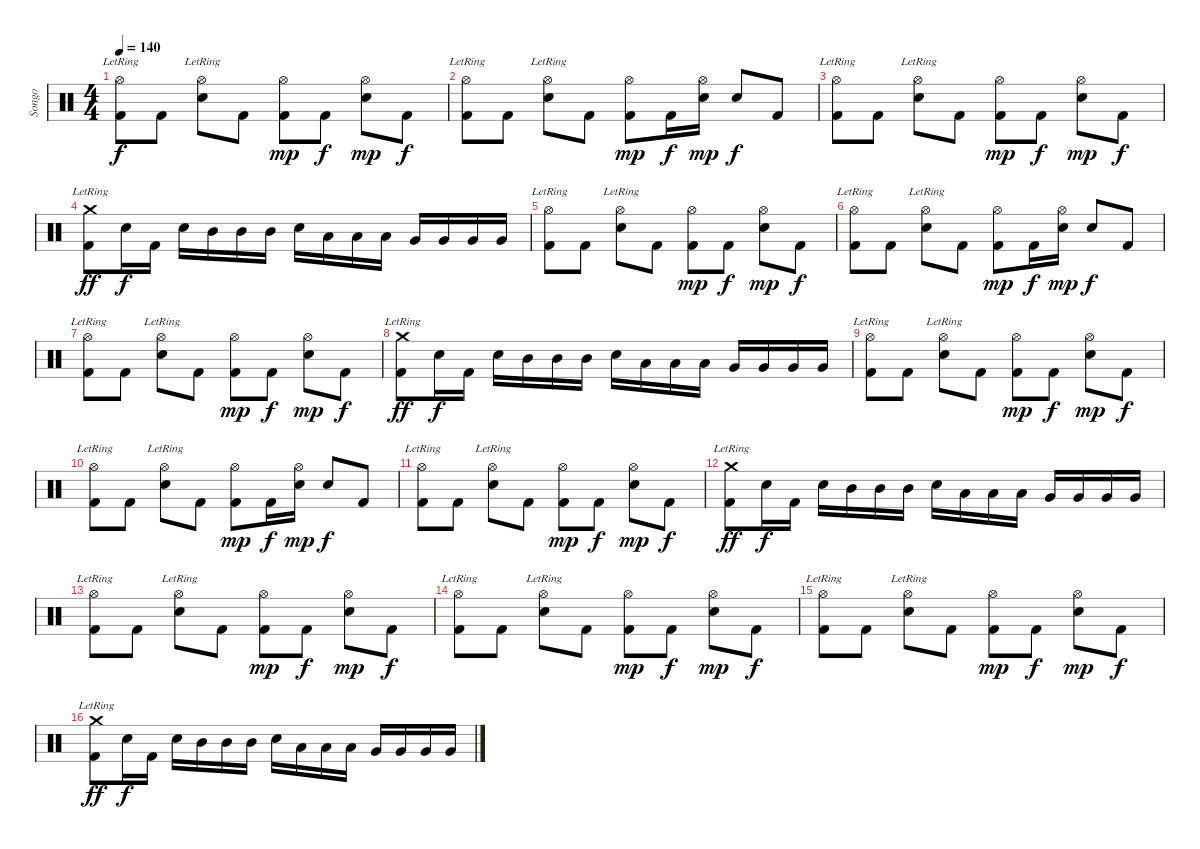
\track ("Songo" "Songo") {instrument percussion}
\staff {score}
\articulation defaults
\ts (4 4)
\tempo 140
\clef neutral
\ks c
("Hi-Hat (open)"{lr} "Kick (hit) 2").8{dy f} "Kick (hit) 2".8 ("Hi-Hat (open)"{lr} "Electric Snare (hit)").8 "Kick (hit) 2".8 ("Hi-Hat (open)" "Kick (hit) 2").8{dy mp} "Kick (hit) 2".8{dy f} ("Hi-Hat (open)" "Electric Snare (hit)").8{dy mp} "Kick (hit) 2".8{dy f} |
("Hi-Hat (open)"{lr} "Kick (hit) 2").8 "Kick (hit) 2".8 ("Hi-Hat (open)"{lr} "Electric Snare (hit)").8 "Kick (hit) 2".8 ("Hi-Hat (open)" "Kick (hit) 2").8{dy mp} "Kick (hit) 2".16{dy f} ("Hi-Hat (open)" "Electric Snare (hit)").16{dy mp} "Electric Snare (hit)".8{dy f} "Kick (hit) 2".8 |
("Hi-Hat (open)"{lr} "Kick (hit) 2").8 "Kick (hit) 2".8 ("Hi-Hat (open)"{lr} "Electric Snare (hit)").8 "Kick (hit) 2".8 ("Hi-Hat (open)" "Kick (hit) 2").8{dy mp} "Kick (hit) 2".8{dy f} ("Hi-Hat (open)" "Electric Snare (hit)").8{dy mp} "Kick (hit) 2".8{dy f} |
("Crash medium (hit)"{lr} "Kick (hit) 2").8{dy ff} "Electric Snare (hit)".16{dy f} "Kick (hit) 2".16 "Electric Snare (hit)".16 "Mid Tom (hit)".16 "Mid Tom (hit)".16 "Mid Tom (hit)".16 "Electric Snare (hit)".16 "Low Tom (hit)".16 "Low Tom (hit)".16 "Low Tom (hit)".16 "Very Low Tom (hit)".16 "Very Low Tom (hit)".16 "Very Low Tom (hit)".16 "Very Low Tom (hit)".16 |
("Hi-Hat (open)"{lr} "Kick (hit) 2").8 "Kick (hit) 2".8 ("Hi-Hat (open)"{lr} "Electric Snare (hit)").8 "Kick (hit) 2".8 ("Hi-Hat (open)" "Kick (hit) 2").8{dy mp} "Kick (hit) 2".8{dy f} ("Hi-Hat (open)" "Electric Snare (hit)").8{dy mp} "Kick (hit) 2".8{dy f} |
("Hi-Hat (open)"{lr} "Kick (hit) 2").8 "Kick (hit) 2".8 ("Hi-Hat (open)"{lr} "Electric Snare (hit)").8 "Kick (hit) 2".8 ("Hi-Hat (open)" "Kick (hit) 2").8{dy mp} "Kick (hit) 2".16{dy f} ("Hi-Hat (open)" "Electric Snare (hit)").16{dy mp} "Electric Snare (hit)".8{dy f} "Kick (hit) 2".8 |
("Hi-Hat (open)"{lr} "Kick (hit) 2").8 "Kick (hit) 2".8 ("Hi-Hat (open)"{lr} "Electric Snare (hit)").8 "Kick (hit) 2".8 ("Hi-Hat (open)" "Kick (hit) 2").8{dy mp} "Kick (hit) 2".8{dy f} ("Hi-Hat (open)" "Electric Snare (hit)").8{dy mp} "Kick (hit) 2".8{dy f} |
("Crash medium (hit)"{lr} "Kick (hit) 2").8{dy ff} "Electric Snare (hit)".16{dy f} "Kick (hit) 2".16 "Electric Snare (hit)".16 "Mid Tom (hit)".16 "Mid Tom (hit)".16 "Mid Tom (hit)".16 "Electric Snare (hit)".16 "Low Tom (hit)".16 "Low Tom (hit)".16 "Low Tom (hit)".16 "Very Low Tom (hit)".16 "Very Low Tom (hit)".16 "Very Low Tom (hit)".16 "Very Low Tom (hit)".16 |
("Hi-Hat (open)"{lr} "Kick (hit) 2").8 "Kick (hit) 2".8 ("Hi-Hat (open)"{lr} "Electric Snare (hit)").8 "Kick (hit) 2".8 ("Hi-Hat (open)" "Kick (hit) 2").8{dy mp} "Kick (hit) 2".8{dy f} ("Hi-Hat (open)" "Electric Snare (hit)").8{dy mp} "Kick (hit) 2".8{dy f} |
("Hi-Hat (open)"{lr} "Kick (hit) 2").8 "Kick (hit) 2".8 ("Hi-Hat (open)"{lr} "Electric Snare (hit)").8 "Kick (hit) 2".8 ("Hi-Hat (open)" "Kick (hit) 2").8{dy mp} "Kick (hit) 2".16{dy f} ("Hi-Hat (open)" "Electric Snare (hit)").16{dy mp} "Electric Snare (hit)".8{dy f} "Kick (hit) 2".8 |
("Hi-Hat (open)"{lr} "Kick (hit) 2").8 "Kick (hit) 2".8 ("Hi-Hat (open)"{lr} "Electric Snare (hit)").8 "Kick (hit) 2".8 ("Hi-Hat (open)" "Kick (hit) 2").8{dy mp} "Kick (hit) 2".8{dy f} ("Hi-Hat (open)" "Electric Snare (hit)").8{dy mp} "Kick (hit) 2".8{dy f} |
("Crash medium (hit)"{lr} "Kick (hit) 2").8{dy ff} "Electric Snare (hit)".16{dy f} "Kick (hit) 2".16 "Electric Snare (hit)".16 "Mid Tom (hit)".16 "Mid Tom (hit)".16 "Mid Tom (hit)".16 "Electric Snare (hit)".16 "Low Tom (hit)".16 "Low Tom (hit)".16 "Low Tom (hit)".16 "Very Low Tom (hit)".16 "Very Low Tom (hit)".16 "Very Low Tom (hit)".16 "Very Low Tom (hit)".16 |
("Hi-Hat (open)"{lr} "Kick (hit) 2").8 "Kick (hit) 2".8 ("Hi-Hat (open)"{lr} "Electric Snare (hit)").8 "Kick (hit) 2".8 ("Hi-Hat (open)" "Kick (hit) 2").8{dy mp} "Kick (hit) 2".8{dy f} ("Hi-Hat (open)" "Electric Snare (hit)").8{dy mp} "Kick (hit) 2".8{dy f} |
("Hi-Hat (open)"{lr} "Kick (hit) 2").8 "Kick (hit) 2".8 ("Hi-Hat (open)"{lr} "Electric Snare (hit)").8 "Kick (hit) 2".8 ("Hi-Hat (open)" "Kick (hit) 2").8{dy mp} "Kick (hit) 2".8{dy f} ("Hi-Hat (open)" "Electric Snare (hit)").8{dy mp} "Kick (hit) 2".8{dy f} |
("Hi-Hat (open)"{lr} "Kick (hit) 2").8 "Kick (hit) 2".8 ("Hi-Hat (open)"{lr} "Electric Snare (hit)").8 "Kick (hit) 2".8 ("Hi-Hat (open)" "Kick (hit) 2").8{dy mp} "Kick (hit) 2".8{dy f} ("Hi-Hat (open)" "Electric Snare (hit)").8{dy mp} "Kick (hit) 2".8{dy f} |
("Crash medium (hit)"{lr} "Kick (hit) 2").8{dy ff} "Electric Snare (hit)".16{dy f} "Kick (hit) 2".16 "Electric Snare (hit)".16 "Mid Tom (hit)".16 "Mid Tom (hit)".16 "Mid Tom (hit)".16 "Electric Snare (hit)".16 "Low Tom (hit)".16 "Low Tom (hit)".16 "Low Tom (hit)".16 "Very Low Tom (hit)".16 "Very Low Tom (hit)".16 "Very Low Tom (hit)".16 "Very Low Tom (hit)".16
